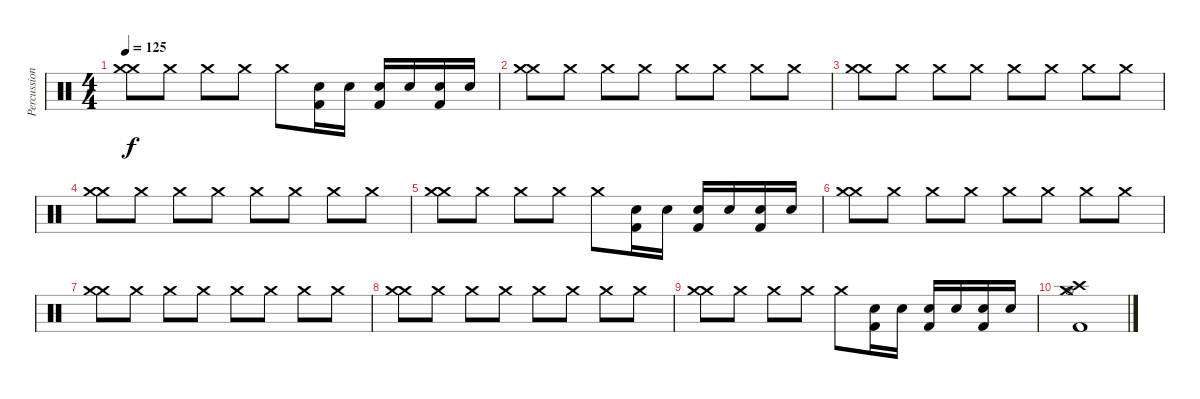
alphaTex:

\track ("Percussion" "Percussion") {instrument percussion}
\staff {score}
\articulation defaults
\ts (4 4)
\tempo 125
\clef neutral
\ks c
("Crash medium (hit)" "Crash medium (hit)").8{dy f} "Crash medium (hit)".8 "Crash medium (hit)".8 "Crash medium (hit)".8 "Crash medium (hit)".8 ("Kick (hit) 2" "Electric Snare (hit)").16 "Electric Snare (hit)".16 ("Kick (hit) 2" "Electric Snare (hit)").16 "Electric Snare (hit)".16 ("Kick (hit) 2" "Electric Snare (hit)").16 "Electric Snare (hit)".16 |
("Crash medium (hit)" "Crash medium (hit)").8 "Crash medium (hit)".8 "Crash medium (hit)".8 "Crash medium (hit)".8 "Crash medium (hit)".8 "Crash medium (hit)".8 "Crash medium (hit)".8 "Crash medium (hit)".8 |
("Crash medium (hit)" "Crash medium (hit)").8 "Crash medium (hit)".8 "Crash medium (hit)".8 "Crash medium (hit)".8 "Crash medium (hit)".8 "Crash medium (hit)".8 "Crash medium (hit)".8 "Crash medium (hit)".8 |
("Crash medium (hit)" "Crash medium (hit)").8 "Crash medium (hit)".8 "Crash medium (hit)".8 "Crash medium (hit)".8 "Crash medium (hit)".8 "Crash medium (hit)".8 "Crash medium (hit)".8 "Crash medium (hit)".8 |
("Crash medium (hit)" "Crash medium (hit)").8 "Crash medium (hit)".8 "Crash medium (hit)".8 "Crash medium (hit)".8 "Crash medium (hit)".8 ("Kick (hit) 2" "Electric Snare (hit)").16 "Electric Snare (hit)".16 ("Kick (hit) 2" "Electric Snare (hit)").16 "Electric Snare (hit)".16 ("Kick (hit) 2" "Electric Snare (hit)").16 "Electric Snare (hit)".16 |
("Crash medium (hit)" "Crash medium (hit)").8 "Crash medium (hit)".8 "Crash medium (hit)".8 "Crash medium (hit)".8 "Crash medium (hit)".8 "Crash medium (hit)".8 "Crash medium (hit)".8 "Crash medium (hit)".8 |
("Crash medium (hit)" "Crash medium (hit)").8 "Crash medium (hit)".8 "Crash medium (hit)".8 "Crash medium (hit)".8 "Crash medium (hit)".8 "Crash medium (hit)".8 "Crash medium (hit)".8 "Crash medium (hit)".8 |
("Crash medium (hit)" "Crash medium (hit)").8 "Crash medium (hit)".8 "Crash medium (hit)".8 "Crash medium (hit)".8 "Crash medium (hit)".8 "Crash medium (hit)".8 "Crash medium (hit)".8 "Crash medium (hit)".8 |
("Crash medium (hit)" "Crash medium (hit)").8 "Crash medium (hit)".8 "Crash medium (hit)".8 "Crash medium (hit)".8 "Crash medium (hit)".8 ("Kick (hit) 2" "Electric Snare (hit)").16 "Electric Snare (hit)".16 ("Kick (hit) 2" "Electric Snare (hit)").16 "Electric Snare (hit)".16 ("Kick (hit) 2" "Electric Snare (hit)").16 "Electric Snare (hit)".16 |
("Crash medium (hit)" "Crash high (hit)" "Hi-Hat (open)" "Kick (hit) 2").1
